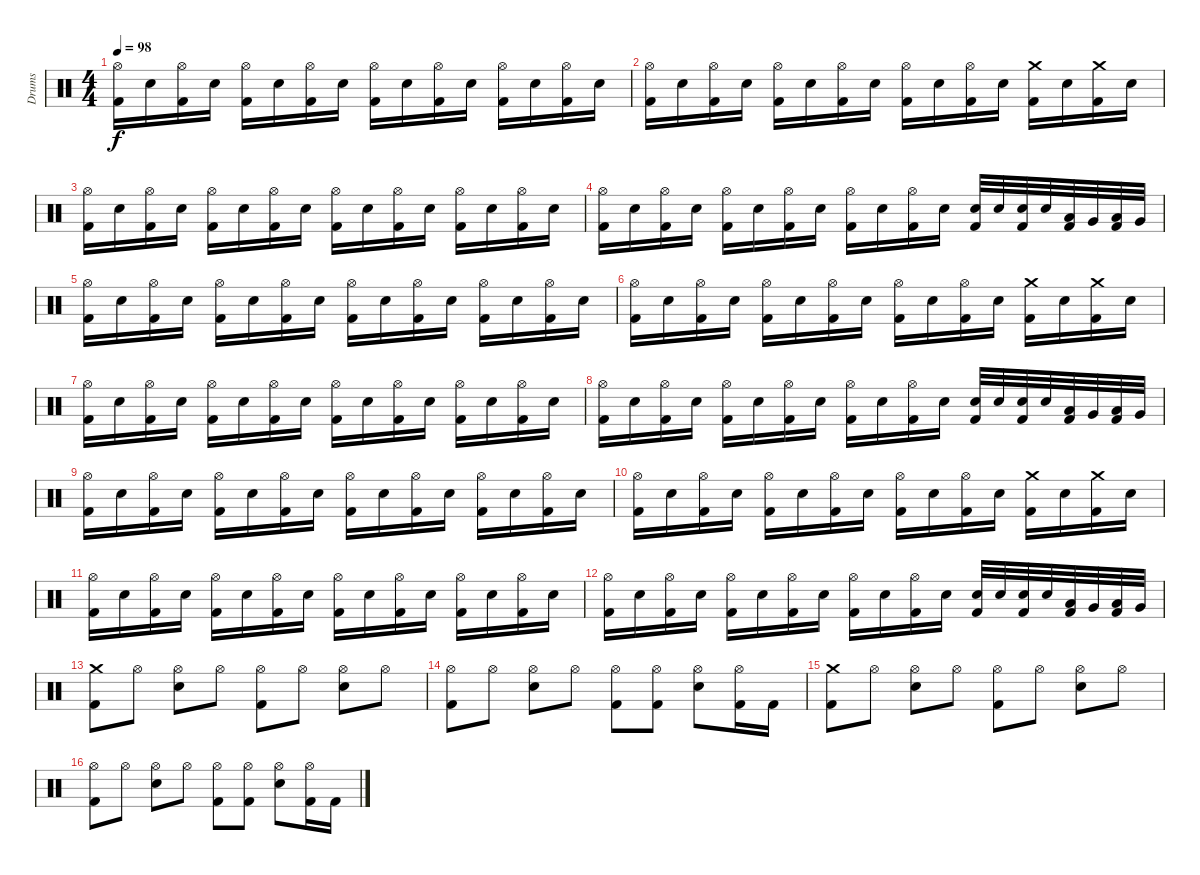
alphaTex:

\track ("Drums" "Drums") {instrument percussion}
\staff {score}
\articulation defaults
\ts (4 4)
\tempo 98
\clef neutral
\ks c
("Hi-Hat (open)" "Kick (hit) 2").16{dy f} "Snare (hit) 2".16 ("Hi-Hat (open)" "Kick (hit) 2").16 "Snare (hit) 2".16 ("Hi-Hat (open)" "Kick (hit) 2").16 "Snare (hit) 2".16 ("Hi-Hat (open)" "Kick (hit) 2").16 "Snare (hit) 2".16 ("Hi-Hat (open)" "Kick (hit) 2").16 "Snare (hit) 2".16 ("Hi-Hat (open)" "Kick (hit) 2").16 "Snare (hit) 2".16 ("Hi-Hat (open)" "Kick (hit) 2").16 "Snare (hit) 2".16 ("Hi-Hat (open)" "Kick (hit) 2").16 "Snare (hit) 2".16 |
("Hi-Hat (open)" "Kick (hit) 2").16 "Snare (hit) 2".16 ("Hi-Hat (open)" "Kick (hit) 2").16 "Snare (hit) 2".16 ("Hi-Hat (open)" "Kick (hit) 2").16 "Snare (hit) 2".16 ("Hi-Hat (open)" "Kick (hit) 2").16 "Snare (hit) 2".16 ("Hi-Hat (open)" "Kick (hit) 2").16 "Snare (hit) 2".16 ("Hi-Hat (open)" "Kick (hit) 2").16 "Snare (hit) 2".16 ("Crash medium (hit)" "Kick (hit) 2").16 "Snare (hit) 2".16 ("Crash medium (hit)" "Kick (hit) 2").16 "Snare (hit) 2".16 |
("Hi-Hat (open)" "Kick (hit) 2").16 "Snare (hit) 2".16 ("Hi-Hat (open)" "Kick (hit) 2").16 "Snare (hit) 2".16 ("Hi-Hat (open)" "Kick (hit) 2").16 "Snare (hit) 2".16 ("Hi-Hat (open)" "Kick (hit) 2").16 "Snare (hit) 2".16 ("Hi-Hat (open)" "Kick (hit) 2").16 "Snare (hit) 2".16 ("Hi-Hat (open)" "Kick (hit) 2").16 "Snare (hit) 2".16 ("Hi-Hat (open)" "Kick (hit) 2").16 "Snare (hit) 2".16 ("Hi-Hat (open)" "Kick (hit) 2").16 "Snare (hit) 2".16 |
("Hi-Hat (open)" "Kick (hit) 2").16 "Snare (hit) 2".16 ("Hi-Hat (open)" "Kick (hit) 2").16 "Snare (hit) 2".16 ("Hi-Hat (open)" "Kick (hit) 2").16 "Snare (hit) 2".16 ("Hi-Hat (open)" "Kick (hit) 2").16 "Snare (hit) 2".16 ("Hi-Hat (open)" "Kick (hit) 2").16 "Snare (hit) 2".16 ("Hi-Hat (open)" "Kick (hit) 2").16 "Snare (hit) 2".16 ("Snare (hit) 2" "Kick (hit) 2").32 "Snare (hit) 2".32 ("Snare (hit) 2" "Kick (hit) 2").32 "Snare (hit) 2".32 ("Low Tom (hit)" "Kick (hit) 2").32 "Very Low Tom (hit)".32 ("Low Tom (hit)" "Kick (hit) 2").32 "Very Low Tom (hit)".32 |
("Hi-Hat (open)" "Kick (hit) 2").16 "Snare (hit) 2".16 ("Hi-Hat (open)" "Kick (hit) 2").16 "Snare (hit) 2".16 ("Hi-Hat (open)" "Kick (hit) 2").16 "Snare (hit) 2".16 ("Hi-Hat (open)" "Kick (hit) 2").16 "Snare (hit) 2".16 ("Hi-Hat (open)" "Kick (hit) 2").16 "Snare (hit) 2".16 ("Hi-Hat (open)" "Kick (hit) 2").16 "Snare (hit) 2".16 ("Hi-Hat (open)" "Kick (hit) 2").16 "Snare (hit) 2".16 ("Hi-Hat (open)" "Kick (hit) 2").16 "Snare (hit) 2".16 |
("Hi-Hat (open)" "Kick (hit) 2").16 "Snare (hit) 2".16 ("Hi-Hat (open)" "Kick (hit) 2").16 "Snare (hit) 2".16 ("Hi-Hat (open)" "Kick (hit) 2").16 "Snare (hit) 2".16 ("Hi-Hat (open)" "Kick (hit) 2").16 "Snare (hit) 2".16 ("Hi-Hat (open)" "Kick (hit) 2").16 "Snare (hit) 2".16 ("Hi-Hat (open)" "Kick (hit) 2").16 "Snare (hit) 2".16 ("Crash medium (hit)" "Kick (hit) 2").16 "Snare (hit) 2".16 ("Crash medium (hit)" "Kick (hit) 2").16 "Snare (hit) 2".16 |
("Hi-Hat (open)" "Kick (hit) 2").16 "Snare (hit) 2".16 ("Hi-Hat (open)" "Kick (hit) 2").16 "Snare (hit) 2".16 ("Hi-Hat (open)" "Kick (hit) 2").16 "Snare (hit) 2".16 ("Hi-Hat (open)" "Kick (hit) 2").16 "Snare (hit) 2".16 ("Hi-Hat (open)" "Kick (hit) 2").16 "Snare (hit) 2".16 ("Hi-Hat (open)" "Kick (hit) 2").16 "Snare (hit) 2".16 ("Hi-Hat (open)" "Kick (hit) 2").16 "Snare (hit) 2".16 ("Hi-Hat (open)" "Kick (hit) 2").16 "Snare (hit) 2".16 |
("Hi-Hat (open)" "Kick (hit) 2").16 "Snare (hit) 2".16 ("Hi-Hat (open)" "Kick (hit) 2").16 "Snare (hit) 2".16 ("Hi-Hat (open)" "Kick (hit) 2").16 "Snare (hit) 2".16 ("Hi-Hat (open)" "Kick (hit) 2").16 "Snare (hit) 2".16 ("Hi-Hat (open)" "Kick (hit) 2").16 "Snare (hit) 2".16 ("Hi-Hat (open)" "Kick (hit) 2").16 "Snare (hit) 2".16 ("Snare (hit) 2" "Kick (hit) 2").32 "Snare (hit) 2".32 ("Snare (hit) 2" "Kick (hit) 2").32 "Snare (hit) 2".32 ("Low Tom (hit)" "Kick (hit) 2").32 "Very Low Tom (hit)".32 ("Low Tom (hit)" "Kick (hit) 2").32 "Very Low Tom (hit)".32 |
("Hi-Hat (open)" "Kick (hit) 2").16 "Snare (hit) 2".16 ("Hi-Hat (open)" "Kick (hit) 2").16 "Snare (hit) 2".16 ("Hi-Hat (open)" "Kick (hit) 2").16 "Snare (hit) 2".16 ("Hi-Hat (open)" "Kick (hit) 2").16 "Snare (hit) 2".16 ("Hi-Hat (open)" "Kick (hit) 2").16 "Snare (hit) 2".16 ("Hi-Hat (open)" "Kick (hit) 2").16 "Snare (hit) 2".16 ("Hi-Hat (open)" "Kick (hit) 2").16 "Snare (hit) 2".16 ("Hi-Hat (open)" "Kick (hit) 2").16 "Snare (hit) 2".16 |
("Hi-Hat (open)" "Kick (hit) 2").16 "Snare (hit) 2".16 ("Hi-Hat (open)" "Kick (hit) 2").16 "Snare (hit) 2".16 ("Hi-Hat (open)" "Kick (hit) 2").16 "Snare (hit) 2".16 ("Hi-Hat (open)" "Kick (hit) 2").16 "Snare (hit) 2".16 ("Hi-Hat (open)" "Kick (hit) 2").16 "Snare (hit) 2".16 ("Hi-Hat (open)" "Kick (hit) 2").16 "Snare (hit) 2".16 ("Crash medium (hit)" "Kick (hit) 2").16 "Snare (hit) 2".16 ("Crash medium (hit)" "Kick (hit) 2").16 "Snare (hit) 2".16 |
("Hi-Hat (open)" "Kick (hit) 2").16 "Snare (hit) 2".16 ("Hi-Hat (open)" "Kick (hit) 2").16 "Snare (hit) 2".16 ("Hi-Hat (open)" "Kick (hit) 2").16 "Snare (hit) 2".16 ("Hi-Hat (open)" "Kick (hit) 2").16 "Snare (hit) 2".16 ("Hi-Hat (open)" "Kick (hit) 2").16 "Snare (hit) 2".16 ("Hi-Hat (open)" "Kick (hit) 2").16 "Snare (hit) 2".16 ("Hi-Hat (open)" "Kick (hit) 2").16 "Snare (hit) 2".16 ("Hi-Hat (open)" "Kick (hit) 2").16 "Snare (hit) 2".16 |
("Hi-Hat (open)" "Kick (hit) 2").16 "Snare (hit) 2".16 ("Hi-Hat (open)" "Kick (hit) 2").16 "Snare (hit) 2".16 ("Hi-Hat (open)" "Kick (hit) 2").16 "Snare (hit) 2".16 ("Hi-Hat (open)" "Kick (hit) 2").16 "Snare (hit) 2".16 ("Hi-Hat (open)" "Kick (hit) 2").16 "Snare (hit) 2".16 ("Hi-Hat (open)" "Kick (hit) 2").16 "Snare (hit) 2".16 ("Snare (hit) 2" "Kick (hit) 2").32 "Snare (hit) 2".32 ("Snare (hit) 2" "Kick (hit) 2").32 "Snare (hit) 2".32 ("Low Tom (hit)" "Kick (hit) 2").32 "Very Low Tom (hit)".32 ("Low Tom (hit)" "Kick (hit) 2").32 "Very Low Tom (hit)".32 |
("Crash medium (hit)" "Kick (hit) 2").8 "Hi-Hat (open)".8 ("Hi-Hat (open)" "Snare (hit) 2").8 "Hi-Hat (open)".8 ("Hi-Hat (open)" "Kick (hit) 2").8 "Hi-Hat (open)".8 ("Hi-Hat (open)" "Snare (hit) 2").8 "Hi-Hat (open)".8 |
("Hi-Hat (open)" "Kick (hit) 2").8 "Hi-Hat (open)".8 ("Hi-Hat (open)" "Snare (hit) 2").8 "Hi-Hat (open)".8 ("Hi-Hat (open)" "Kick (hit) 2").8 ("Hi-Hat (open)" "Kick (hit) 2").8 ("Hi-Hat (open)" "Snare (hit) 2").8 ("Hi-Hat (open)" "Kick (hit) 2").16 "Kick (hit) 2".16 |
("Crash medium (hit)" "Kick (hit) 2").8 "Hi-Hat (open)".8 ("Hi-Hat (open)" "Snare (hit) 2").8 "Hi-Hat (open)".8 ("Hi-Hat (open)" "Kick (hit) 2").8 "Hi-Hat (open)".8 ("Hi-Hat (open)" "Snare (hit) 2").8 "Hi-Hat (open)".8 |
("Hi-Hat (open)" "Kick (hit) 2").8 "Hi-Hat (open)".8 ("Hi-Hat (open)" "Snare (hit) 2").8 "Hi-Hat (open)".8 ("Hi-Hat (open)" "Kick (hit) 2").8 ("Hi-Hat (open)" "Kick (hit) 2").8 ("Hi-Hat (open)" "Snare (hit) 2").8 ("Hi-Hat (open)" "Kick (hit) 2").16 "Kick (hit) 2".16
